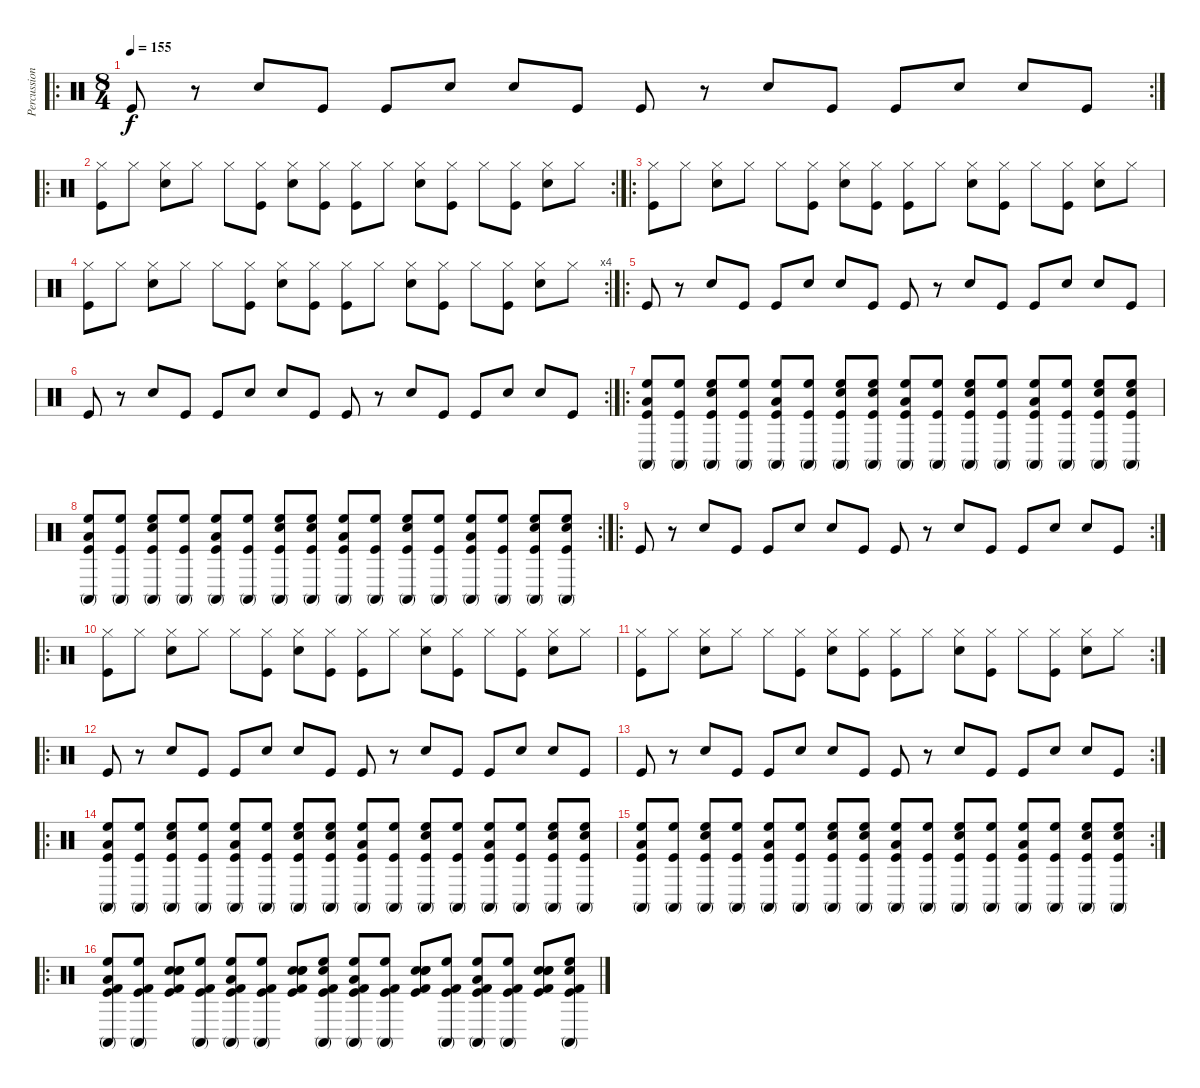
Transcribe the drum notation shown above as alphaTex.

\track ("Percussion" "Percussion") {instrument percussion}
\staff {score}
\articulation defaults
\ro
\rc 2
\ts (8 4)
\tempo 155
\clef neutral
\ks c "Kick (hit)".8{dy f}
r.8 "Snare (hit) 2".8 "Kick (hit)".8 "Kick (hit)".8 "Snare (hit) 2".8 "Snare (hit) 2".8 "Kick (hit)".8 "Kick (hit)".8 r.8 "Snare (hit) 2".8 "Kick (hit)".8 "Kick (hit)".8 "Snare (hit) 2".8 "Snare (hit) 2".8 "Kick (hit)".8 |
\ro
\rc 2
("Hi-Hat (closed)" "Kick (hit)").8 "Hi-Hat (closed)".8 ("Hi-Hat (closed)" "Snare (hit) 2").8 "Hi-Hat (closed)".8 "Hi-Hat (closed)".8 ("Hi-Hat (closed)" "Kick (hit)").8 ("Hi-Hat (closed)" "Snare (hit) 2").8 ("Hi-Hat (closed)" "Kick (hit)").8 ("Hi-Hat (closed)" "Kick (hit)").8 "Hi-Hat (closed)".8 ("Hi-Hat (closed)" "Snare (hit) 2").8 ("Hi-Hat (closed)" "Kick (hit)").8 "Hi-Hat (closed)".8 ("Hi-Hat (closed)" "Kick (hit)").8 ("Hi-Hat (closed)" "Snare (hit) 2").8 "Hi-Hat (closed)".8 |
\ro
("Hi-Hat (closed)" "Kick (hit)").8 "Hi-Hat (closed)".8 ("Hi-Hat (closed)" "Snare (hit) 2").8 "Hi-Hat (closed)".8 "Hi-Hat (closed)".8 ("Hi-Hat (closed)" "Kick (hit)").8 ("Hi-Hat (closed)" "Snare (hit) 2").8 ("Hi-Hat (closed)" "Kick (hit)").8 ("Hi-Hat (closed)" "Kick (hit)").8 "Hi-Hat (closed)".8 ("Hi-Hat (closed)" "Snare (hit) 2").8 ("Hi-Hat (closed)" "Kick (hit)").8 "Hi-Hat (closed)".8 ("Hi-Hat (closed)" "Kick (hit)").8 ("Hi-Hat (closed)" "Snare (hit) 2").8 "Hi-Hat (closed)".8 |
\rc 4
("Hi-Hat (closed)" "Kick (hit)").8 "Hi-Hat (closed)".8 ("Hi-Hat (closed)" "Snare (hit) 2").8 "Hi-Hat (closed)".8 "Hi-Hat (closed)".8 ("Hi-Hat (closed)" "Kick (hit)").8 ("Hi-Hat (closed)" "Snare (hit) 2").8 ("Hi-Hat (closed)" "Kick (hit)").8 ("Hi-Hat (closed)" "Kick (hit)").8 "Hi-Hat (closed)".8 ("Hi-Hat (closed)" "Snare (hit) 2").8 ("Hi-Hat (closed)" "Kick (hit)").8 "Hi-Hat (closed)".8 ("Hi-Hat (closed)" "Kick (hit)").8 ("Hi-Hat (closed)" "Snare (hit) 2").8 "Hi-Hat (closed)".8 |
\ro "Kick (hit)".8
r.8 "Snare (hit) 2".8 "Kick (hit)".8 "Kick (hit)".8 "Snare (hit) 2".8 "Snare (hit) 2".8 "Kick (hit)".8 "Kick (hit)".8 r.8 "Snare (hit) 2".8 "Kick (hit)".8 "Kick (hit)".8 "Snare (hit) 2".8 "Snare (hit) 2".8 "Kick (hit)".8 |
\rc 2 "Kick (hit)".8
r.8 "Snare (hit) 2".8 "Kick (hit)".8 "Kick (hit)".8 "Snare (hit) 2".8 "Snare (hit) 2".8 "Kick (hit)".8 "Kick (hit)".8 r.8 "Snare (hit) 2".8 "Kick (hit)".8 "Kick (hit)".8 "Snare (hit) 2".8 "Snare (hit) 2".8 "Kick (hit)".8 |
\ro
("Conga high (mute)" "High Floor Tom (hit)" "Low Tom (hit)" "Kick (hit)").8 ("Conga high (mute)" "High Floor Tom (hit)" "Kick (hit)").8 ("Conga high (mute)" "High Floor Tom (hit)" "Snare (hit) 2" "Kick (hit)").8 ("Conga high (mute)" "High Floor Tom (hit)" "Kick (hit)").8 ("Conga high (mute)" "High Floor Tom (hit)" "Low Tom (hit)" "Kick (hit)").8 ("Conga high (mute)" "High Floor Tom (hit)" "Kick (hit)").8 ("Conga high (mute)" "High Floor Tom (hit)" "Snare (hit) 2" "Kick (hit)").8 ("Conga high (mute)" "High Floor Tom (hit)" "Snare (hit) 2" "Kick (hit)").8 ("Conga high (mute)" "High Floor Tom (hit)" "Low Tom (hit)" "Kick (hit)").8 ("Conga high (mute)" "High Floor Tom (hit)" "Kick (hit)").8 ("Conga high (mute)" "High Floor Tom (hit)" "Snare (hit) 2" "Kick (hit)").8 ("Conga high (mute)" "High Floor Tom (hit)" "Kick (hit)").8 ("Conga high (mute)" "High Floor Tom (hit)" "Low Tom (hit)" "Kick (hit)").8 ("Conga high (mute)" "High Floor Tom (hit)" "Kick (hit)").8 ("Conga high (mute)" "High Floor Tom (hit)" "Snare (hit) 2" "Kick (hit)").8 ("Conga high (mute)" "High Floor Tom (hit)" "Snare (hit) 2" "Kick (hit)").8 |
\rc 2
("Conga high (mute)" "High Floor Tom (hit)" "Low Tom (hit)" "Kick (hit)").8 ("Conga high (mute)" "High Floor Tom (hit)" "Kick (hit)").8 ("Conga high (mute)" "High Floor Tom (hit)" "Snare (hit) 2" "Kick (hit)").8 ("Conga high (mute)" "High Floor Tom (hit)" "Kick (hit)").8 ("Conga high (mute)" "High Floor Tom (hit)" "Low Tom (hit)" "Kick (hit)").8 ("Conga high (mute)" "High Floor Tom (hit)" "Kick (hit)").8 ("Conga high (mute)" "High Floor Tom (hit)" "Snare (hit) 2" "Kick (hit)").8 ("Conga high (mute)" "High Floor Tom (hit)" "Snare (hit) 2" "Kick (hit)").8 ("Conga high (mute)" "High Floor Tom (hit)" "Low Tom (hit)" "Kick (hit)").8 ("Conga high (mute)" "High Floor Tom (hit)" "Kick (hit)").8 ("Conga high (mute)" "High Floor Tom (hit)" "Snare (hit) 2" "Kick (hit)").8 ("Conga high (mute)" "High Floor Tom (hit)" "Kick (hit)").8 ("Conga high (mute)" "High Floor Tom (hit)" "Low Tom (hit)" "Kick (hit)").8 ("Conga high (mute)" "High Floor Tom (hit)" "Kick (hit)").8 ("Conga high (mute)" "High Floor Tom (hit)" "Snare (hit) 2" "Kick (hit)").8 ("Conga high (mute)" "High Floor Tom (hit)" "Snare (hit) 2" "Kick (hit)").8 |
\ro
\rc 2 "Kick (hit)".8
r.8 "Snare (hit) 2".8 "Kick (hit)".8 "Kick (hit)".8 "Snare (hit) 2".8 "Snare (hit) 2".8 "Kick (hit)".8 "Kick (hit)".8 r.8 "Snare (hit) 2".8 "Kick (hit)".8 "Kick (hit)".8 "Snare (hit) 2".8 "Snare (hit) 2".8 "Kick (hit)".8 |
\ro
("Hi-Hat (closed)" "Kick (hit)").8 "Hi-Hat (closed)".8 ("Hi-Hat (closed)" "Snare (hit) 2").8 "Hi-Hat (closed)".8 "Hi-Hat (closed)".8 ("Hi-Hat (closed)" "Kick (hit)").8 ("Hi-Hat (closed)" "Snare (hit) 2").8 ("Hi-Hat (closed)" "Kick (hit)").8 ("Hi-Hat (closed)" "Kick (hit)").8 "Hi-Hat (closed)".8 ("Hi-Hat (closed)" "Snare (hit) 2").8 ("Hi-Hat (closed)" "Kick (hit)").8 "Hi-Hat (closed)".8 ("Hi-Hat (closed)" "Kick (hit)").8 ("Hi-Hat (closed)" "Snare (hit) 2").8 "Hi-Hat (closed)".8 |
\rc 2
("Hi-Hat (closed)" "Kick (hit)").8 "Hi-Hat (closed)".8 ("Hi-Hat (closed)" "Snare (hit) 2").8 "Hi-Hat (closed)".8 "Hi-Hat (closed)".8 ("Hi-Hat (closed)" "Kick (hit)").8 ("Hi-Hat (closed)" "Snare (hit) 2").8 ("Hi-Hat (closed)" "Kick (hit)").8 ("Hi-Hat (closed)" "Kick (hit)").8 "Hi-Hat (closed)".8 ("Hi-Hat (closed)" "Snare (hit) 2").8 ("Hi-Hat (closed)" "Kick (hit)").8 "Hi-Hat (closed)".8 ("Hi-Hat (closed)" "Kick (hit)").8 ("Hi-Hat (closed)" "Snare (hit) 2").8 "Hi-Hat (closed)".8 |
\ro "Kick (hit)".8
r.8 "Snare (hit) 2".8 "Kick (hit)".8 "Kick (hit)".8 "Snare (hit) 2".8 "Snare (hit) 2".8 "Kick (hit)".8 "Kick (hit)".8 r.8 "Snare (hit) 2".8 "Kick (hit)".8 "Kick (hit)".8 "Snare (hit) 2".8 "Snare (hit) 2".8 "Kick (hit)".8 |
\rc 2 "Kick (hit)".8
r.8 "Snare (hit) 2".8 "Kick (hit)".8 "Kick (hit)".8 "Snare (hit) 2".8 "Snare (hit) 2".8 "Kick (hit)".8 "Kick (hit)".8 r.8 "Snare (hit) 2".8 "Kick (hit)".8 "Kick (hit)".8 "Snare (hit) 2".8 "Snare (hit) 2".8 "Kick (hit)".8 |
\ro
("Conga high (mute)" "High Floor Tom (hit)" "Low Tom (hit)" "Kick (hit)").8 ("Conga high (mute)" "High Floor Tom (hit)" "Kick (hit)").8 ("Conga high (mute)" "High Floor Tom (hit)" "Snare (hit) 2" "Kick (hit)").8 ("Conga high (mute)" "High Floor Tom (hit)" "Kick (hit)").8 ("Conga high (mute)" "High Floor Tom (hit)" "Low Tom (hit)" "Kick (hit)").8 ("Conga high (mute)" "High Floor Tom (hit)" "Kick (hit)").8 ("Conga high (mute)" "High Floor Tom (hit)" "Snare (hit) 2" "Kick (hit)").8 ("Conga high (mute)" "High Floor Tom (hit)" "Snare (hit) 2" "Kick (hit)").8 ("Conga high (mute)" "High Floor Tom (hit)" "Low Tom (hit)" "Kick (hit)").8 ("Conga high (mute)" "High Floor Tom (hit)" "Kick (hit)").8 ("Conga high (mute)" "High Floor Tom (hit)" "Snare (hit) 2" "Kick (hit)").8 ("Conga high (mute)" "High Floor Tom (hit)" "Kick (hit)").8 ("Conga high (mute)" "High Floor Tom (hit)" "Low Tom (hit)" "Kick (hit)").8 ("Conga high (mute)" "High Floor Tom (hit)" "Kick (hit)").8 ("Conga high (mute)" "High Floor Tom (hit)" "Snare (hit) 2" "Kick (hit)").8 ("Conga high (mute)" "High Floor Tom (hit)" "Snare (hit) 2" "Kick (hit)").8 |
\rc 2
("Conga high (mute)" "High Floor Tom (hit)" "Low Tom (hit)" "Kick (hit)").8 ("Conga high (mute)" "High Floor Tom (hit)" "Kick (hit)").8 ("Conga high (mute)" "High Floor Tom (hit)" "Snare (hit) 2" "Kick (hit)").8 ("Conga high (mute)" "High Floor Tom (hit)" "Kick (hit)").8 ("Conga high (mute)" "High Floor Tom (hit)" "Low Tom (hit)" "Kick (hit)").8 ("Conga high (mute)" "High Floor Tom (hit)" "Kick (hit)").8 ("Conga high (mute)" "High Floor Tom (hit)" "Snare (hit) 2" "Kick (hit)").8 ("Conga high (mute)" "High Floor Tom (hit)" "Snare (hit) 2" "Kick (hit)").8 ("Conga high (mute)" "High Floor Tom (hit)" "Low Tom (hit)" "Kick (hit)").8 ("Conga high (mute)" "High Floor Tom (hit)" "Kick (hit)").8 ("Conga high (mute)" "High Floor Tom (hit)" "Snare (hit) 2" "Kick (hit)").8 ("Conga high (mute)" "High Floor Tom (hit)" "Kick (hit)").8 ("Conga high (mute)" "High Floor Tom (hit)" "Low Tom (hit)" "Kick (hit)").8 ("Conga high (mute)" "High Floor Tom (hit)" "Kick (hit)").8 ("Conga high (mute)" "High Floor Tom (hit)" "Snare (hit) 2" "Kick (hit)").8 ("Conga high (mute)" "High Floor Tom (hit)" "Snare (hit) 2" "Kick (hit)").8 |
\ro
("Conga high (mute)" "High Floor Tom (hit)" "Low Tom (hit)" "Kick (hit) 2" "Kick (hit)").8 ("Conga high (mute)" "High Floor Tom (hit)" "Kick (hit) 2" "Kick (hit)").8 ("Electric Snare (hit)" "Snare (hit) 2" "Snare (hit) 2" "Kick (hit) 2" "Kick (hit)").8 ("Conga high (mute)" "High Floor Tom (hit)" "Kick (hit) 2" "Kick (hit)").8 ("Conga high (mute)" "High Floor Tom (hit)" "Low Tom (hit)" "Kick (hit) 2" "Kick (hit)").8 ("Conga high (mute)" "High Floor Tom (hit)" "Kick (hit) 2" "Kick (hit)").8 ("Electric Snare (hit)" "Snare (hit) 2" "Snare (hit) 2" "Kick (hit) 2" "Kick (hit)").8 ("Conga high (mute)" "High Floor Tom (hit)" "Snare (hit) 2" "Kick (hit) 2" "Kick (hit)").8 ("Conga high (mute)" "High Floor Tom (hit)" "Low Tom (hit)" "Kick (hit) 2" "Kick (hit)").8 ("Conga high (mute)" "High Floor Tom (hit)" "Kick (hit) 2" "Kick (hit)").8 ("Electric Snare (hit)" "Snare (hit) 2" "Snare (hit) 2" "Kick (hit) 2" "Kick (hit)").8 ("Conga high (mute)" "High Floor Tom (hit)" "Kick (hit) 2" "Kick (hit)").8 ("Conga high (mute)" "High Floor Tom (hit)" "Low Tom (hit)" "Kick (hit) 2" "Kick (hit)").8 ("Conga high (mute)" "High Floor Tom (hit)" "Kick (hit) 2" "Kick (hit)").8 ("Electric Snare (hit)" "Snare (hit) 2" "Snare (hit) 2" "Kick (hit) 2" "Kick (hit)").8 ("Conga high (mute)" "High Floor Tom (hit)" "Snare (hit) 2" "Kick (hit) 2" "Kick (hit)").8
